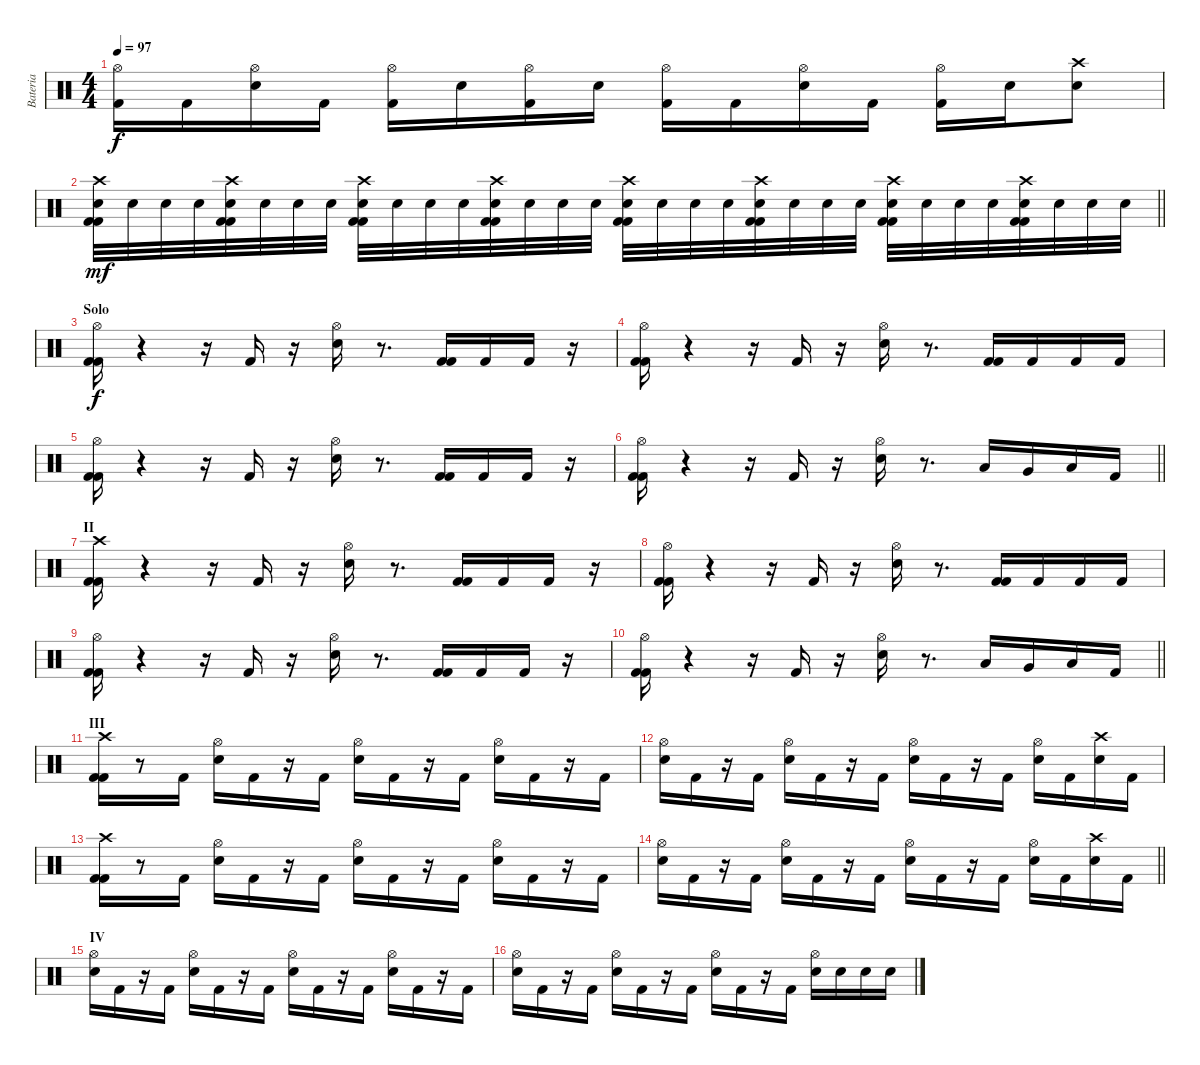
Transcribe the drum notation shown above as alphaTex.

\track ("Bateria" "Bateria") {instrument percussion}
\staff {score}
\articulation defaults
\ts (4 4)
\tempo 97
\clef neutral
\ks c
("Hi-Hat (open)" "Kick (hit) 2").16{dy f} "Kick (hit) 2".16 ("Hi-Hat (open)" "Electric Snare (hit)").16 "Kick (hit) 2".16 ("Hi-Hat (open)" "Kick (hit) 2").16 "Electric Snare (hit)".16 ("Hi-Hat (open)" "Kick (hit) 2").16 "Electric Snare (hit)".16 ("Hi-Hat (open)" "Kick (hit) 2").16 "Kick (hit) 2".16 ("Hi-Hat (open)" "Electric Snare (hit)").16 "Kick (hit) 2".16 ("Hi-Hat (open)" "Kick (hit) 2").16 "Electric Snare (hit)".16 ("Crash high (hit)" "Electric Snare (hit)").8 |
\barLineRight lightlight
("Crash high (hit)" "Electric Snare (hit)" "Kick (hit) 2" "Kick (hit) 2").32{dy mf} "Electric Snare (hit)".32 "Electric Snare (hit)".32 "Electric Snare (hit)".32 ("Crash high (hit)" "Electric Snare (hit)" "Kick (hit) 2" "Kick (hit) 2").32 "Electric Snare (hit)".32 "Electric Snare (hit)".32 "Electric Snare (hit)".32 ("Crash high (hit)" "Electric Snare (hit)" "Kick (hit) 2" "Kick (hit) 2").32 "Electric Snare (hit)".32 "Electric Snare (hit)".32 "Electric Snare (hit)".32 ("Crash high (hit)" "Electric Snare (hit)" "Kick (hit) 2" "Kick (hit) 2").32 "Electric Snare (hit)".32 "Electric Snare (hit)".32 "Electric Snare (hit)".32 ("Crash high (hit)" "Electric Snare (hit)" "Kick (hit) 2" "Kick (hit) 2").32 "Electric Snare (hit)".32 "Electric Snare (hit)".32 "Electric Snare (hit)".32 ("Crash high (hit)" "Electric Snare (hit)" "Kick (hit) 2" "Kick (hit) 2").32 "Electric Snare (hit)".32 "Electric Snare (hit)".32 "Electric Snare (hit)".32 ("Crash high (hit)" "Electric Snare (hit)" "Kick (hit) 2" "Kick (hit) 2").32 "Electric Snare (hit)".32 "Electric Snare (hit)".32 "Electric Snare (hit)".32 ("Crash high (hit)" "Electric Snare (hit)" "Kick (hit) 2" "Kick (hit) 2").32 "Electric Snare (hit)".32 "Electric Snare (hit)".32 "Electric Snare (hit)".32 |
\section ("" "Solo")
("Hi-Hat (open)" "Kick (hit) 2" "Kick (hit) 2").16{dy f} r.4 r.16 "Kick (hit) 2".16 r.16 ("Hi-Hat (open)" "Electric Snare (hit)").16 r.8{d} ("Kick (hit) 2" "Kick (hit) 2").16 "Kick (hit) 2".16 "Kick (hit) 2".16 r.16 |
("Hi-Hat (open)" "Kick (hit) 2" "Kick (hit) 2").16 r.4 r.16 "Kick (hit) 2".16 r.16 ("Hi-Hat (open)" "Electric Snare (hit)").16 r.8{d} ("Kick (hit) 2" "Kick (hit) 2").16 "Kick (hit) 2".16 "Kick (hit) 2".16 "Kick (hit) 2".16 |
("Hi-Hat (open)" "Kick (hit) 2" "Kick (hit) 2").16 r.4 r.16 "Kick (hit) 2".16 r.16 ("Hi-Hat (open)" "Electric Snare (hit)").16 r.8{d} ("Kick (hit) 2" "Kick (hit) 2").16 "Kick (hit) 2".16 "Kick (hit) 2".16 r.16 |
\barLineRight lightlight
("Hi-Hat (open)" "Kick (hit) 2" "Kick (hit) 2").16 r.4 r.16 "Kick (hit) 2".16 r.16 ("Hi-Hat (open)" "Electric Snare (hit)").16 r.8{d} "Low Tom (hit)".16 "Very Low Tom (hit)".16 "Low Floor Tom (hit)".16 "Kick (hit) 2".16 |
\section ("" "II")
("Crash high (hit)" "Kick (hit) 2" "Kick (hit) 2").16 r.4 r.16 "Kick (hit) 2".16 r.16 ("Hi-Hat (open)" "Electric Snare (hit)").16 r.8{d} ("Kick (hit) 2" "Kick (hit) 2").16 "Kick (hit) 2".16 "Kick (hit) 2".16 r.16 |
("Hi-Hat (open)" "Kick (hit) 2" "Kick (hit) 2").16 r.4 r.16 "Kick (hit) 2".16 r.16 ("Hi-Hat (open)" "Electric Snare (hit)").16 r.8{d} ("Kick (hit) 2" "Kick (hit) 2").16 "Kick (hit) 2".16 "Kick (hit) 2".16 "Kick (hit) 2".16 |
("Hi-Hat (open)" "Kick (hit) 2" "Kick (hit) 2").16 r.4 r.16 "Kick (hit) 2".16 r.16 ("Hi-Hat (open)" "Electric Snare (hit)").16 r.8{d} ("Kick (hit) 2" "Kick (hit) 2").16 "Kick (hit) 2".16 "Kick (hit) 2".16 r.16 |
\barLineRight lightlight
("Hi-Hat (open)" "Kick (hit) 2" "Kick (hit) 2").16 r.4 r.16 "Kick (hit) 2".16 r.16 ("Hi-Hat (open)" "Electric Snare (hit)").16 r.8{d} "Low Tom (hit)".16 "Very Low Tom (hit)".16 "Low Floor Tom (hit)".16 "Kick (hit) 2".16 |
\section ("" "III")
("Crash high (hit)" "Kick (hit) 2" "Kick (hit) 2").16 r.8 "Kick (hit) 2".16 ("Hi-Hat (open)" "Electric Snare (hit)").16 "Kick (hit) 2".16 r.16 "Kick (hit) 2".16 ("Hi-Hat (open)" "Electric Snare (hit)").16 "Kick (hit) 2".16 r.16 "Kick (hit) 2".16 ("Hi-Hat (open)" "Electric Snare (hit)").16 "Kick (hit) 2".16 r.16 "Kick (hit) 2".16 |
("Hi-Hat (open)" "Electric Snare (hit)").16 "Kick (hit) 2".16 r.16 "Kick (hit) 2".16 ("Hi-Hat (open)" "Electric Snare (hit)").16 "Kick (hit) 2".16 r.16 "Kick (hit) 2".16 ("Hi-Hat (open)" "Electric Snare (hit)").16 "Kick (hit) 2".16 r.16 "Kick (hit) 2".16 ("Hi-Hat (open)" "Electric Snare (hit)").16 "Kick (hit) 2".16 ("Crash high (hit)" "Electric Snare (hit)").16 "Kick (hit) 2".16 |
("Crash high (hit)" "Kick (hit) 2" "Kick (hit) 2").16 r.8 "Kick (hit) 2".16 ("Hi-Hat (open)" "Electric Snare (hit)").16 "Kick (hit) 2".16 r.16 "Kick (hit) 2".16 ("Hi-Hat (open)" "Electric Snare (hit)").16 "Kick (hit) 2".16 r.16 "Kick (hit) 2".16 ("Hi-Hat (open)" "Electric Snare (hit)").16 "Kick (hit) 2".16 r.16 "Kick (hit) 2".16 |
\barLineRight lightlight
("Hi-Hat (open)" "Electric Snare (hit)").16 "Kick (hit) 2".16 r.16 "Kick (hit) 2".16 ("Hi-Hat (open)" "Electric Snare (hit)").16 "Kick (hit) 2".16 r.16 "Kick (hit) 2".16 ("Hi-Hat (open)" "Electric Snare (hit)").16 "Kick (hit) 2".16 r.16 "Kick (hit) 2".16 ("Hi-Hat (open)" "Electric Snare (hit)").16 "Kick (hit) 2".16 ("Crash high (hit)" "Electric Snare (hit)").16 "Kick (hit) 2".16 |
\section ("" "IV")
("Hi-Hat (open)" "Electric Snare (hit)").16 "Kick (hit) 2".16 r.16 "Kick (hit) 2".16 ("Hi-Hat (open)" "Electric Snare (hit)").16 "Kick (hit) 2".16 r.16 "Kick (hit) 2".16 ("Hi-Hat (open)" "Electric Snare (hit)").16 "Kick (hit) 2".16 r.16 "Kick (hit) 2".16 ("Hi-Hat (open)" "Electric Snare (hit)").16 "Kick (hit) 2".16 r.16 "Kick (hit) 2".16 |
("Hi-Hat (open)" "Electric Snare (hit)").16 "Kick (hit) 2".16 r.16 "Kick (hit) 2".16 ("Hi-Hat (open)" "Electric Snare (hit)").16 "Kick (hit) 2".16 r.16 "Kick (hit) 2".16 ("Hi-Hat (open)" "Electric Snare (hit)").16 "Kick (hit) 2".16 r.16 "Kick (hit) 2".16 ("Hi-Hat (open)" "Electric Snare (hit)").16 "Electric Snare (hit)".16 "Electric Snare (hit)".16 "Electric Snare (hit)".16
